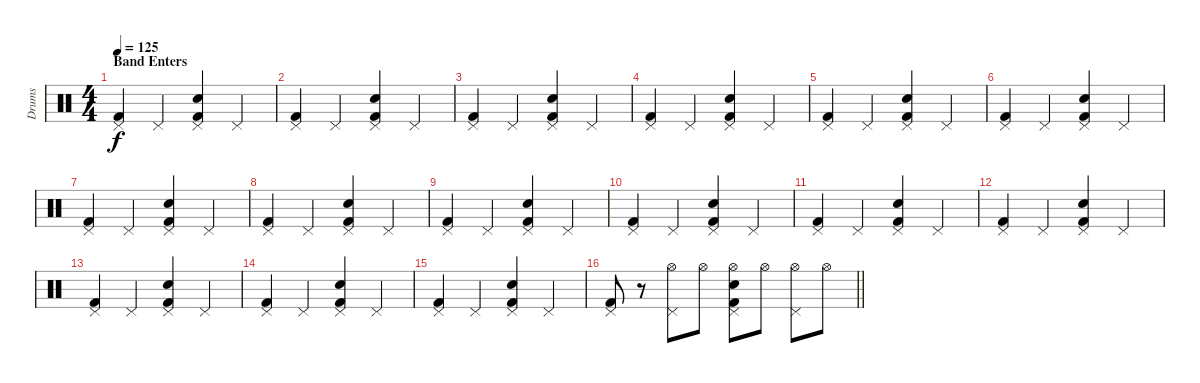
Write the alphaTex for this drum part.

\track ("Drums" "Drums") {instrument percussion}
\staff {score}
\articulation defaults
\ts (4 4)
\section ("" "Band Enters")
\tempo 125
\clef neutral
\ks c
("Pedal Hi-Hat (hit)" "Kick (hit) 2").4{dy f} "Pedal Hi-Hat (hit)".4 ("Pedal Hi-Hat (hit)" "Electric Snare (hit)" "Kick (hit) 2").4 "Pedal Hi-Hat (hit)".4 |
("Pedal Hi-Hat (hit)" "Kick (hit) 2").4 "Pedal Hi-Hat (hit)".4 ("Pedal Hi-Hat (hit)" "Electric Snare (hit)" "Kick (hit) 2").4 "Pedal Hi-Hat (hit)".4 |
("Pedal Hi-Hat (hit)" "Kick (hit) 2").4 "Pedal Hi-Hat (hit)".4 ("Pedal Hi-Hat (hit)" "Electric Snare (hit)" "Kick (hit) 2").4 "Pedal Hi-Hat (hit)".4 |
("Pedal Hi-Hat (hit)" "Kick (hit) 2").4 "Pedal Hi-Hat (hit)".4 ("Pedal Hi-Hat (hit)" "Electric Snare (hit)" "Kick (hit) 2").4 "Pedal Hi-Hat (hit)".4 |
("Pedal Hi-Hat (hit)" "Kick (hit) 2").4 "Pedal Hi-Hat (hit)".4 ("Pedal Hi-Hat (hit)" "Electric Snare (hit)" "Kick (hit) 2").4 "Pedal Hi-Hat (hit)".4 |
("Pedal Hi-Hat (hit)" "Kick (hit) 2").4 "Pedal Hi-Hat (hit)".4 ("Pedal Hi-Hat (hit)" "Electric Snare (hit)" "Kick (hit) 2").4 "Pedal Hi-Hat (hit)".4 |
("Pedal Hi-Hat (hit)" "Kick (hit) 2").4 "Pedal Hi-Hat (hit)".4 ("Pedal Hi-Hat (hit)" "Electric Snare (hit)" "Kick (hit) 2").4 "Pedal Hi-Hat (hit)".4 |
("Pedal Hi-Hat (hit)" "Kick (hit) 2").4 "Pedal Hi-Hat (hit)".4 ("Pedal Hi-Hat (hit)" "Electric Snare (hit)" "Kick (hit) 2").4 "Pedal Hi-Hat (hit)".4 |
("Pedal Hi-Hat (hit)" "Kick (hit) 2").4 "Pedal Hi-Hat (hit)".4 ("Pedal Hi-Hat (hit)" "Electric Snare (hit)" "Kick (hit) 2").4 "Pedal Hi-Hat (hit)".4 |
("Pedal Hi-Hat (hit)" "Kick (hit) 2").4 "Pedal Hi-Hat (hit)".4 ("Pedal Hi-Hat (hit)" "Electric Snare (hit)" "Kick (hit) 2").4 "Pedal Hi-Hat (hit)".4 |
("Pedal Hi-Hat (hit)" "Kick (hit) 2").4 "Pedal Hi-Hat (hit)".4 ("Pedal Hi-Hat (hit)" "Electric Snare (hit)" "Kick (hit) 2").4 "Pedal Hi-Hat (hit)".4 |
("Pedal Hi-Hat (hit)" "Kick (hit) 2").4 "Pedal Hi-Hat (hit)".4 ("Pedal Hi-Hat (hit)" "Electric Snare (hit)" "Kick (hit) 2").4 "Pedal Hi-Hat (hit)".4 |
("Pedal Hi-Hat (hit)" "Kick (hit) 2").4 "Pedal Hi-Hat (hit)".4 ("Pedal Hi-Hat (hit)" "Electric Snare (hit)" "Kick (hit) 2").4 "Pedal Hi-Hat (hit)".4 |
("Pedal Hi-Hat (hit)" "Kick (hit) 2").4 "Pedal Hi-Hat (hit)".4 ("Pedal Hi-Hat (hit)" "Electric Snare (hit)" "Kick (hit) 2").4 "Pedal Hi-Hat (hit)".4 |
("Pedal Hi-Hat (hit)" "Kick (hit) 2").4 "Pedal Hi-Hat (hit)".4 ("Pedal Hi-Hat (hit)" "Electric Snare (hit)" "Kick (hit) 2").4 "Pedal Hi-Hat (hit)".4 |
\barLineRight lightlight
("Pedal Hi-Hat (hit)" "Kick (hit) 2").8 r.8 ("Hi-Hat (open)" "Pedal Hi-Hat (hit)").8 "Hi-Hat (open)".8 ("Hi-Hat (open)" "Pedal Hi-Hat (hit)" "Electric Snare (hit)" "Kick (hit) 2").8 "Hi-Hat (open)".8 ("Hi-Hat (open)" "Pedal Hi-Hat (hit)").8 "Hi-Hat (open)".8
